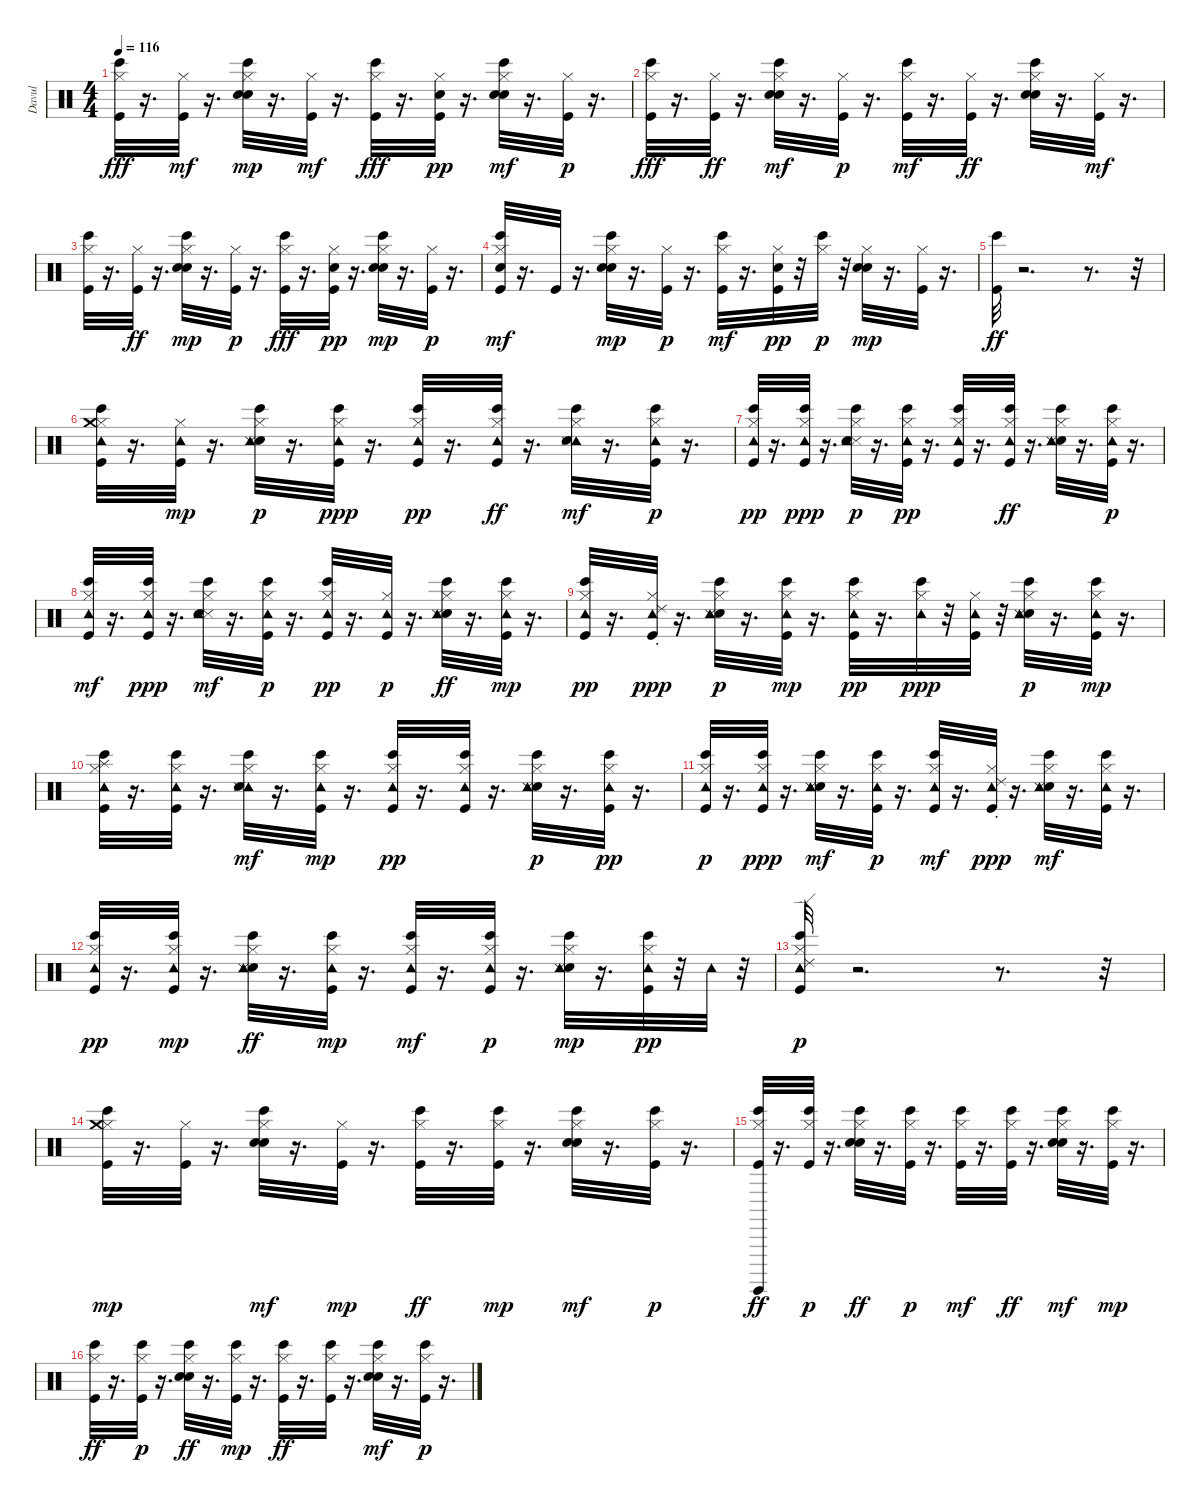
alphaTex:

\track ("Davul" "Davul") {instrument percussion}
\staff {score}
\articulation defaults
\ts (4 4)
\tempo 116
\clef neutral
\ks c
("Kick (hit)" "Hi-Hat (closed)" "Bongo High (hit)").32{dy fff} r.16{d} ("Hi-Hat (closed)" "Kick (hit)").32{dy mf} r.16{d} ("Snare (hit) 2" "Hi-Hat (closed)" "Bongo High (hit)" "Electric Snare (hit)").32{dy mp} r.16{d} ("Hi-Hat (closed)" "Kick (hit)").32{dy mf} r.16{d} ("Bongo High (hit)" "Hi-Hat (closed)" "Kick (hit)").32{dy fff} r.16{d} ("Kick (hit)" "Hi-Hat (closed)" "Electric Snare (hit)").32{dy pp} r.16{d} ("Bongo High (hit)" "Electric Snare (hit)" "Snare (hit) 2" "Hi-Hat (closed)").32{dy mf} r.16{d} ("Kick (hit)" "Hi-Hat (closed)").32{dy p} r.16{d} |
("Kick (hit)" "Hi-Hat (closed)" "Bongo High (hit)").32{dy fff} r.16{d} ("Hi-Hat (closed)" "Kick (hit)").32{dy ff} r.16{d} ("Bongo High (hit)" "Electric Snare (hit)" "Hi-Hat (closed)" "Snare (hit) 2").32{dy mf} r.16{d} ("Kick (hit)" "Hi-Hat (closed)").32{dy p} r.16{d} ("Kick (hit)" "Hi-Hat (closed)" "Bongo High (hit)").32{dy mf} r.16{d} ("Hi-Hat (closed)" "Kick (hit)").32{dy ff} r.16{d} ("Bongo High (hit)" "Electric Snare (hit)" "Snare (hit) 2" "Hi-Hat (closed)").32 r.16{d} ("Hi-Hat (closed)" "Kick (hit)").32{dy mf} r.16{d} |
("Kick (hit)" "Hi-Hat (closed)" "Bongo High (hit)").32 r.16{d} ("Hi-Hat (closed)" "Kick (hit)").32{dy ff} r.16{d} ("Bongo High (hit)" "Hi-Hat (closed)" "Snare (hit) 2" "Electric Snare (hit)").32{dy mp} r.16{d} ("Kick (hit)" "Hi-Hat (closed)").32{dy p} r.16{d} ("Bongo High (hit)" "Hi-Hat (closed)" "Kick (hit)").32{dy fff} r.16{d} ("Kick (hit)" "Electric Snare (hit)" "Hi-Hat (closed)").32{dy pp} r.16{d} ("Snare (hit) 2" "Hi-Hat (closed)" "Bongo High (hit)" "Electric Snare (hit)").32{dy mp} r.16{d} ("Kick (hit)" "Hi-Hat (closed)").32{dy p} r.16{d} |
("Kick (hit)" "Snare (hit)" "Hi-Hat (closed)" "Bongo High (hit)").32{dy mf} r.16{d} "Kick (hit)".32 r.16{d} ("Snare (hit) 2" "Hi-Hat (closed)" "Bongo High (hit)" "Electric Snare (hit)").32{dy mp} r.16{d} ("Kick (hit)" "Hi-Hat (closed)").32{dy p} r.16{d} ("Kick (hit)" "Hi-Hat (closed)" "Bongo High (hit)").32{dy mf} r.16{d} ("Kick (hit)" "Electric Snare (hit)" "Hi-Hat (closed)").32{dy pp} r.32 ("Hi-Hat (closed)" "Bongo High (hit)").32{dy p} r.32 ("Snare (hit) 2" "Electric Snare (hit)" "Hi-Hat (closed)").32{dy mp} r.16{d} ("Hi-Hat (closed)" "Kick (hit)").32 r.16{d} |
("Bongo High (hit)" "Kick (hit)").32{dy ff} r.2{d} r.8{d} r.32 |
("Tambourine (hit)" "Hi-Hat (closed)" "Crash medium (hit)" "Bongo High (hit)" "Kick (hit)").32 r.16{d} ("Kick (hit)" "Tambourine (hit)" "Hi-Hat (closed)").32{dy mp} r.16{d} ("Snare (hit) 2" "Snare (side stick) 3" "Hi-Hat (closed)" "Tambourine (hit)" "Bongo High (hit)").32{dy p} r.16{d} ("Kick (hit)" "Hi-Hat (closed)" "Bongo High (hit)" "Tambourine (hit)").32{dy ppp} r.16{d} ("Bongo High (hit)" "Hi-Hat (closed)" "Kick (hit)" "Tambourine (hit)").32{dy pp} r.16{d} ("Tambourine (hit)" "Bongo High (hit)" "Hi-Hat (closed)" "Kick (hit)").32{dy ff} r.16{d} ("Tambourine (hit)" "Snare (hit) 2" "Snare (side stick) 3" "Hi-Hat (closed)" "Bongo High (hit)").32{dy mf} r.16{d} ("Bongo High (hit)" "Kick (hit)" "Tambourine (hit)" "Hi-Hat (closed)").32{dy p} r.16{d} |
("Kick (hit)" "Hi-Hat (closed)" "Bongo High (hit)" "Tambourine (hit)").32{dy pp} r.16{d} ("Kick (hit)" "Hi-Hat (closed)" "Bongo High (hit)" "Tambourine (hit)").32{dy ppp} r.16{d} ("Snare (side stick) 3" "Hi-Hat (closed)" "Snare (hit) 2" "Tambourine (hit)" "Bongo High (hit)").32{dy p} r.16{d} ("Hi-Hat (closed)" "Kick (hit)" "Bongo High (hit)" "Tambourine (hit)").32{dy pp} r.16{d} ("Bongo High (hit)" "Hi-Hat (closed)" "Kick (hit)" "Tambourine (hit)").32 r.16{d} ("Tambourine (hit)" "Bongo High (hit)" "Hi-Hat (closed)" "Kick (hit)").32{dy ff} r.16{d} ("Hi-Hat (closed)" "Bongo High (hit)" "Snare (hit) 2" "Tambourine (hit)" "Snare (side stick) 3").32 r.16{d} ("Bongo High (hit)" "Kick (hit)" "Tambourine (hit)" "Hi-Hat (closed)").32{dy p} r.16{d} |
("Bongo High (hit)" "Kick (hit)" "Tambourine (hit)" "Hi-Hat (closed)").32{dy mf} r.16{d} ("Kick (hit)" "Hi-Hat (closed)" "Bongo High (hit)" "Tambourine (hit)").32{dy ppp} r.16{d} ("Bongo High (hit)" "Snare (side stick) 3" "Tambourine (hit)" "Hi-Hat (closed)" "Snare (hit) 2").32{dy mf} r.16{d} ("Tambourine (hit)" "Hi-Hat (closed)" "Bongo High (hit)" "Kick (hit)").32{dy p} r.16{d} ("Bongo High (hit)" "Hi-Hat (closed)" "Kick (hit)" "Tambourine (hit)").32{dy pp} r.16{d} ("Kick (hit)" "Tambourine (hit)" "Hi-Hat (closed)").32{dy p} r.16{d} ("Snare (hit) 2" "Bongo High (hit)" "Tambourine (hit)" "Hi-Hat (closed)" "Snare (side stick) 3").32{dy ff} r.16{d} ("Bongo High (hit)" "Tambourine (hit)" "Hi-Hat (closed)" "Kick (hit)").32{dy mp} r.16{d} |
("Kick (hit)" "Hi-Hat (closed)" "Bongo High (hit)" "Tambourine (hit)").32{dy pp} r.16{d} ("Kick (hit)" "Hi-Hat (closed)" "Ride (choke) 2" "Tambourine (hit)").32{dy ppp} r.16{d} ("Snare (hit) 2" "Snare (side stick) 3" "Hi-Hat (closed)" "Bongo High (hit)" "Tambourine (hit)").32{dy p} r.16{d} ("Tambourine (hit)" "Kick (hit)" "Hi-Hat (closed)" "Bongo High (hit)").32{dy mp} r.16{d} ("Kick (hit)" "Bongo High (hit)" "Hi-Hat (closed)" "Tambourine (hit)").32{dy pp} r.16{d} ("Hi-Hat (closed)" "Bongo High (hit)" "Tambourine (hit)").32{dy ppp} r.32 ("Kick (hit)" "Hi-Hat (closed)" "Tambourine (hit)").32 r.32 ("Bongo High (hit)" "Snare (hit) 2" "Hi-Hat (closed)" "Snare (side stick) 3" "Tambourine (hit)").32{dy p} r.16{d} ("Bongo High (hit)" "Tambourine (hit)" "Hi-Hat (closed)" "Kick (hit)").32{dy mp} r.16{d} |
("Kick (hit)" "Hi-Hat (closed)" "Bongo High (hit)" "Tambourine (hit)" "Splash (hit)").32 r.16{d} ("Tambourine (hit)" "Kick (hit)" "Hi-Hat (closed)" "Bongo High (hit)").32 r.16{d} ("Bongo High (hit)" "Tambourine (hit)" "Snare (side stick) 3" "Snare (hit) 2" "Hi-Hat (closed)").32{dy mf} r.16{d} ("Bongo High (hit)" "Tambourine (hit)" "Hi-Hat (closed)" "Kick (hit)").32{dy mp} r.16{d} ("Kick (hit)" "Hi-Hat (closed)" "Bongo High (hit)" "Tambourine (hit)").32{dy pp} r.16{d} ("Kick (hit)" "Hi-Hat (closed)" "Bongo High (hit)" "Tambourine (hit)").32 r.16{d} ("Snare (hit) 2" "Snare (side stick) 3" "Hi-Hat (closed)" "Bongo High (hit)" "Tambourine (hit)").32{dy p} r.16{d} ("Kick (hit)" "Hi-Hat (closed)" "Bongo High (hit)" "Tambourine (hit)").32{dy pp} r.16{d} |
("Hi-Hat (closed)" "Kick (hit)" "Tambourine (hit)" "Bongo High (hit)").32{dy p} r.16{d} ("Hi-Hat (closed)" "Kick (hit)" "Bongo High (hit)" "Tambourine (hit)").32{dy ppp} r.16{d} ("Snare (hit) 2" "Tambourine (hit)" "Hi-Hat (closed)" "Snare (side stick) 3" "Bongo High (hit)").32{dy mf} r.16{d} ("Hi-Hat (closed)" "Tambourine (hit)" "Kick (hit)" "Bongo High (hit)").32{dy p} r.16{d} ("Tambourine (hit)" "Bongo High (hit)" "Kick (hit)" "Hi-Hat (closed)").32{dy mf} r.16{d} ("Kick (hit)" "Hi-Hat (closed)" "Ride (choke) 2" "Tambourine (hit)").32{dy ppp} r.16{d} ("Snare (hit) 2" "Snare (side stick) 3" "Hi-Hat (closed)" "Tambourine (hit)" "Bongo High (hit)").32{dy mf} r.16{d} ("Hi-Hat (closed)" "Bongo High (hit)" "Tambourine (hit)" "Kick (hit)").32 r.16{d} |
("Bongo High (hit)" "Hi-Hat (closed)" "Kick (hit)" "Tambourine (hit)").32{dy pp} r.16{d} ("Bongo High (hit)" "Tambourine (hit)" "Kick (hit)" "Hi-Hat (closed)").32{dy mp} r.16{d} ("Snare (hit) 2" "Hi-Hat (closed)" "Tambourine (hit)" "Bongo High (hit)" "Snare (side stick) 3").32{dy ff} r.16{d} ("Bongo High (hit)" "Tambourine (hit)" "Hi-Hat (closed)" "Kick (hit)").32{dy mp} r.16{d} ("Bongo High (hit)" "Kick (hit)" "Tambourine (hit)" "Hi-Hat (closed)").32{dy mf} r.16{d} ("Bongo High (hit)" "Tambourine (hit)" "Kick (hit)" "Hi-Hat (closed)").32{dy p} r.16{d} ("Snare (hit) 2" "Snare (side stick) 3" "Bongo High (hit)" "Hi-Hat (closed)" "Tambourine (hit)").32{dy mp} r.16{d} ("Kick (hit)" "Hi-Hat (closed)" "Bongo High (hit)" "Tambourine (hit)").32{dy pp} r.32 "Tambourine (hit)".32 r.32 |
("Hi-Hat (closed)" "Bongo High (hit)" "Tambourine (hit)" "Kick (hit)" "Ride (edge) 2").32{dy p} r.2{d} r.8{d} r.32 |
("Kick (hit)" "Hi-Hat (closed)" "Bongo High (hit)" "Crash medium (hit)").32{dy mp} r.16{d} ("Kick (hit)" "Hi-Hat (closed)").32 r.16{d} ("Hi-Hat (closed)" "Snare (hit) 2" "Bongo High (hit)" "Electric Snare (hit)").32{dy mf} r.16{d} ("Kick (hit)" "Hi-Hat (closed)").32{dy mp} r.16{d} ("Kick (hit)" "Hi-Hat (closed)" "Bongo High (hit)").32{dy ff} r.16{d} ("Kick (hit)" "Bongo High (hit)" "Hi-Hat (closed)").32{dy mp} r.16{d} ("Hi-Hat (closed)" "Bongo High (hit)" "Snare (hit) 2" "Electric Snare (hit)").32{dy mf} r.16{d} ("Kick (hit)" "Hi-Hat (closed)" "Bongo High (hit)").32{dy p} r.16{d} |
("Surdo (hit)" "Hi-Hat (closed)" "Bongo High (hit)" "Kick (hit)").32{dy ff} r.16{d} ("Hi-Hat (closed)" "Kick (hit)" "Bongo High (hit)").32{dy p} r.16{d} ("Snare (hit) 2" "Electric Snare (hit)" "Hi-Hat (closed)" "Bongo High (hit)").32{dy ff} r.16{d} ("Hi-Hat (closed)" "Kick (hit)" "Bongo High (hit)").32{dy p} r.16{d} ("Kick (hit)" "Hi-Hat (closed)" "Bongo High (hit)").32{dy mf} r.16{d} ("Bongo High (hit)" "Hi-Hat (closed)" "Kick (hit)").32{dy ff} r.16{d} ("Hi-Hat (closed)" "Bongo High (hit)" "Snare (hit) 2" "Electric Snare (hit)").32{dy mf} r.16{d} ("Bongo High (hit)" "Hi-Hat (closed)" "Kick (hit)").32{dy mp} r.16{d} |
("Kick (hit)" "Hi-Hat (closed)" "Bongo High (hit)").32{dy ff} r.16{d} ("Hi-Hat (closed)" "Kick (hit)" "Bongo High (hit)").32{dy p} r.16{d} ("Electric Snare (hit)" "Snare (hit) 2" "Hi-Hat (closed)" "Bongo High (hit)").32{dy ff} r.16{d} ("Bongo High (hit)" "Hi-Hat (closed)" "Kick (hit)").32{dy mp} r.16{d} ("Hi-Hat (closed)" "Kick (hit)" "Bongo High (hit)").32{dy ff} r.16{d} ("Bongo High (hit)" "Hi-Hat (closed)" "Kick (hit)").32 r.16{d} ("Electric Snare (hit)" "Snare (hit) 2" "Hi-Hat (closed)" "Bongo High (hit)").32{dy mf} r.16{d} ("Kick (hit)" "Hi-Hat (closed)" "Bongo High (hit)").32{dy p} r.16{d}
